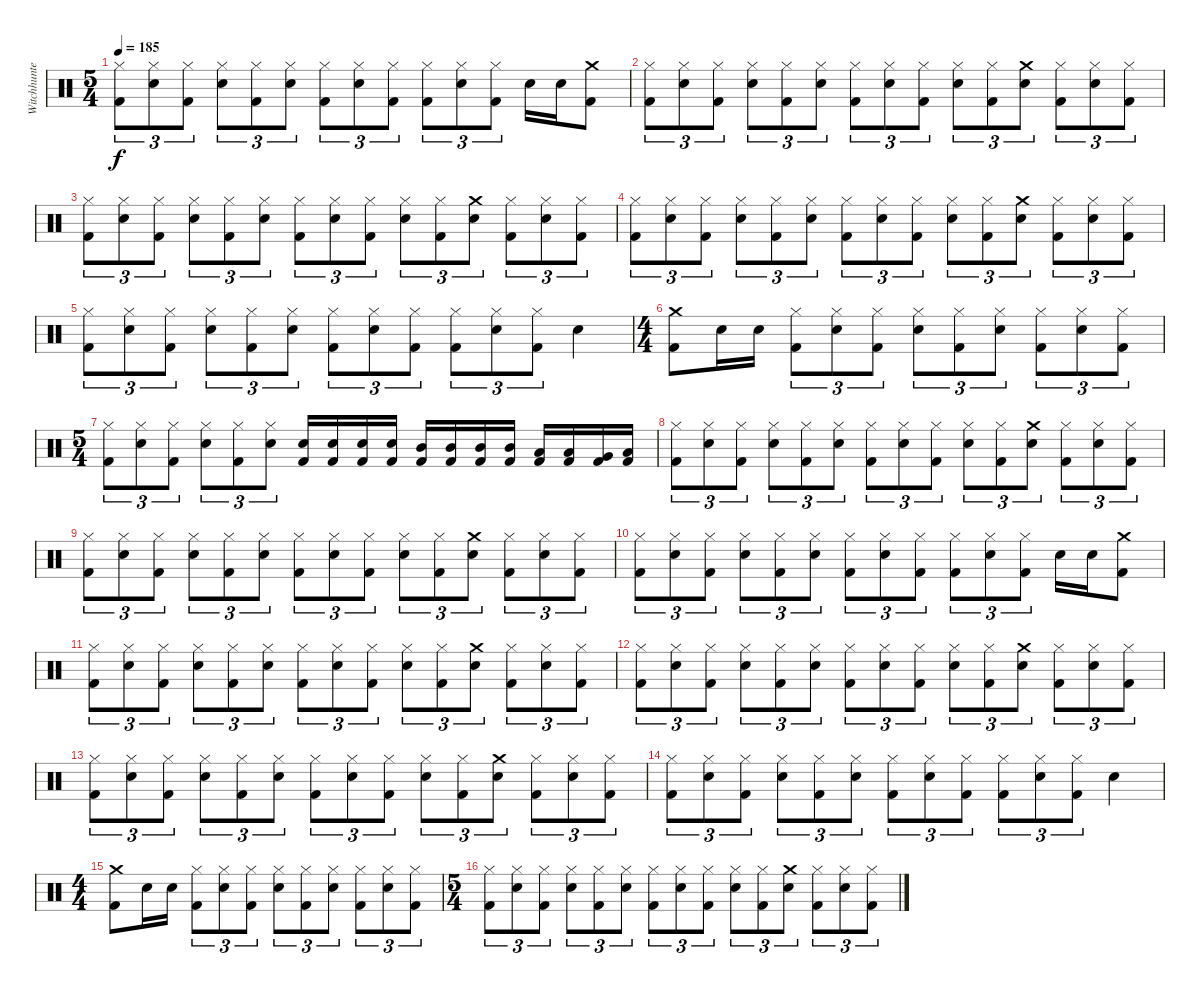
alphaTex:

\track ("Witchhunter" "Witchhunte") {instrument percussion}
\staff {score}
\articulation defaults
\ts (5 4)
\tempo 185
\clef neutral
\ks c
("Hi-Hat (closed)" "Kick (hit) 2").8{tu (3 2) dy f} ("Hi-Hat (closed)" "Snare (hit) 2").8{tu (3 2)} ("Hi-Hat (closed)" "Kick (hit) 2").8{tu (3 2)} ("Hi-Hat (closed)" "Snare (hit) 2").8{tu (3 2)} ("Hi-Hat (closed)" "Kick (hit) 2").8{tu (3 2)} ("Hi-Hat (closed)" "Snare (hit) 2").8{tu (3 2)} ("Hi-Hat (closed)" "Kick (hit) 2").8{tu (3 2)} ("Hi-Hat (closed)" "Snare (hit) 2").8{tu (3 2)} ("Hi-Hat (closed)" "Kick (hit) 2").8{tu (3 2)} ("Hi-Hat (closed)" "Kick (hit) 2").8{tu (3 2)} ("Hi-Hat (closed)" "Snare (hit) 2").8{tu (3 2)} ("Hi-Hat (closed)" "Kick (hit) 2").8{tu (3 2)} "Snare (hit) 2".16 "Snare (hit) 2".16 ("Crash medium (hit)" "Kick (hit) 2").8 |
("Hi-Hat (closed)" "Kick (hit) 2").8{tu (3 2)} ("Hi-Hat (closed)" "Snare (hit) 2").8{tu (3 2)} ("Hi-Hat (closed)" "Kick (hit) 2").8{tu (3 2)} ("Hi-Hat (closed)" "Snare (hit) 2").8{tu (3 2)} ("Hi-Hat (closed)" "Kick (hit) 2").8{tu (3 2)} ("Hi-Hat (closed)" "Snare (hit) 2").8{tu (3 2)} ("Hi-Hat (closed)" "Kick (hit) 2").8{tu (3 2)} ("Hi-Hat (closed)" "Snare (hit) 2").8{tu (3 2)} ("Hi-Hat (closed)" "Kick (hit) 2").8{tu (3 2)} ("Hi-Hat (closed)" "Snare (hit) 2").8{tu (3 2)} ("Hi-Hat (closed)" "Kick (hit) 2").8{tu (3 2)} ("Crash medium (hit)" "Snare (hit) 2").8{tu (3 2)} ("Hi-Hat (closed)" "Kick (hit) 2").8{tu (3 2)} ("Hi-Hat (closed)" "Snare (hit) 2").8{tu (3 2)} ("Hi-Hat (closed)" "Kick (hit) 2").8{tu (3 2)} |
("Hi-Hat (closed)" "Kick (hit) 2").8{tu (3 2)} ("Hi-Hat (closed)" "Snare (hit) 2").8{tu (3 2)} ("Hi-Hat (closed)" "Kick (hit) 2").8{tu (3 2)} ("Hi-Hat (closed)" "Snare (hit) 2").8{tu (3 2)} ("Hi-Hat (closed)" "Kick (hit) 2").8{tu (3 2)} ("Hi-Hat (closed)" "Snare (hit) 2").8{tu (3 2)} ("Hi-Hat (closed)" "Kick (hit) 2").8{tu (3 2)} ("Hi-Hat (closed)" "Snare (hit) 2").8{tu (3 2)} ("Hi-Hat (closed)" "Kick (hit) 2").8{tu (3 2)} ("Hi-Hat (closed)" "Snare (hit) 2").8{tu (3 2)} ("Hi-Hat (closed)" "Kick (hit) 2").8{tu (3 2)} ("Crash medium (hit)" "Snare (hit) 2").8{tu (3 2)} ("Hi-Hat (closed)" "Kick (hit) 2").8{tu (3 2)} ("Hi-Hat (closed)" "Snare (hit) 2").8{tu (3 2)} ("Hi-Hat (closed)" "Kick (hit) 2").8{tu (3 2)} |
("Hi-Hat (closed)" "Kick (hit) 2").8{tu (3 2)} ("Hi-Hat (closed)" "Snare (hit) 2").8{tu (3 2)} ("Hi-Hat (closed)" "Kick (hit) 2").8{tu (3 2)} ("Hi-Hat (closed)" "Snare (hit) 2").8{tu (3 2)} ("Hi-Hat (closed)" "Kick (hit) 2").8{tu (3 2)} ("Hi-Hat (closed)" "Snare (hit) 2").8{tu (3 2)} ("Hi-Hat (closed)" "Kick (hit) 2").8{tu (3 2)} ("Hi-Hat (closed)" "Snare (hit) 2").8{tu (3 2)} ("Hi-Hat (closed)" "Kick (hit) 2").8{tu (3 2)} ("Hi-Hat (closed)" "Snare (hit) 2").8{tu (3 2)} ("Hi-Hat (closed)" "Kick (hit) 2").8{tu (3 2)} ("Crash medium (hit)" "Snare (hit) 2").8{tu (3 2)} ("Hi-Hat (closed)" "Kick (hit) 2").8{tu (3 2)} ("Hi-Hat (closed)" "Snare (hit) 2").8{tu (3 2)} ("Hi-Hat (closed)" "Kick (hit) 2").8{tu (3 2)} |
("Hi-Hat (closed)" "Kick (hit) 2").8{tu (3 2)} ("Hi-Hat (closed)" "Snare (hit) 2").8{tu (3 2)} ("Hi-Hat (closed)" "Kick (hit) 2").8{tu (3 2)} ("Hi-Hat (closed)" "Snare (hit) 2").8{tu (3 2)} ("Hi-Hat (closed)" "Kick (hit) 2").8{tu (3 2)} ("Hi-Hat (closed)" "Snare (hit) 2").8{tu (3 2)} ("Hi-Hat (closed)" "Kick (hit) 2").8{tu (3 2)} ("Hi-Hat (closed)" "Snare (hit) 2").8{tu (3 2)} ("Hi-Hat (closed)" "Kick (hit) 2").8{tu (3 2)} ("Hi-Hat (closed)" "Kick (hit) 2").8{tu (3 2)} ("Hi-Hat (closed)" "Snare (hit) 2").8{tu (3 2)} ("Hi-Hat (closed)" "Kick (hit) 2").8{tu (3 2)} "Snare (hit) 2".4 |
\ts (4 4)
("Crash medium (hit)" "Kick (hit) 2").8 "Snare (hit) 2".16 "Snare (hit) 2".16 ("Hi-Hat (closed)" "Kick (hit) 2").8{tu (3 2)} ("Hi-Hat (closed)" "Snare (hit) 2").8{tu (3 2)} ("Hi-Hat (closed)" "Kick (hit) 2").8{tu (3 2)} ("Hi-Hat (closed)" "Snare (hit) 2").8{tu (3 2)} ("Hi-Hat (closed)" "Kick (hit) 2").8{tu (3 2)} ("Hi-Hat (closed)" "Snare (hit) 2").8{tu (3 2)} ("Hi-Hat (closed)" "Kick (hit) 2").8{tu (3 2)} ("Hi-Hat (closed)" "Snare (hit) 2").8{tu (3 2)} ("Hi-Hat (closed)" "Kick (hit) 2").8{tu (3 2)} |
\ts (5 4)
("Hi-Hat (closed)" "Kick (hit) 2").8{tu (3 2)} ("Hi-Hat (closed)" "Snare (hit) 2").8{tu (3 2)} ("Hi-Hat (closed)" "Kick (hit) 2").8{tu (3 2)} ("Hi-Hat (closed)" "Snare (hit) 2").8{tu (3 2)} ("Hi-Hat (closed)" "Kick (hit) 2").8{tu (3 2)} ("Hi-Hat (closed)" "Snare (hit) 2").8{tu (3 2)} ("Snare (hit) 2" "Kick (hit) 2").16 ("Snare (hit) 2" "Kick (hit) 2").16 ("Snare (hit) 2" "Kick (hit) 2").16 ("Snare (hit) 2" "Kick (hit) 2").16 ("Mid Tom (hit)" "Kick (hit) 2").16 ("Mid Tom (hit)" "Kick (hit) 2").16 ("Mid Tom (hit)" "Kick (hit) 2").16 ("Mid Tom (hit)" "Kick (hit) 2").16 ("Low Tom (hit)" "Kick (hit) 2").16 ("Low Tom (hit)" "Kick (hit) 2").16 ("Very Low Tom (hit)" "Kick (hit) 2").16 ("Low Floor Tom (hit)" "Kick (hit) 2").16 |
("Hi-Hat (closed)" "Kick (hit) 2").8{tu (3 2)} ("Hi-Hat (closed)" "Snare (hit) 2").8{tu (3 2)} ("Hi-Hat (closed)" "Kick (hit) 2").8{tu (3 2)} ("Hi-Hat (closed)" "Snare (hit) 2").8{tu (3 2)} ("Hi-Hat (closed)" "Kick (hit) 2").8{tu (3 2)} ("Hi-Hat (closed)" "Snare (hit) 2").8{tu (3 2)} ("Hi-Hat (closed)" "Kick (hit) 2").8{tu (3 2)} ("Hi-Hat (closed)" "Snare (hit) 2").8{tu (3 2)} ("Hi-Hat (closed)" "Kick (hit) 2").8{tu (3 2)} ("Hi-Hat (closed)" "Snare (hit) 2").8{tu (3 2)} ("Hi-Hat (closed)" "Kick (hit) 2").8{tu (3 2)} ("Crash medium (hit)" "Snare (hit) 2").8{tu (3 2)} ("Hi-Hat (closed)" "Kick (hit) 2").8{tu (3 2)} ("Hi-Hat (closed)" "Snare (hit) 2").8{tu (3 2)} ("Hi-Hat (closed)" "Kick (hit) 2").8{tu (3 2)} |
("Hi-Hat (closed)" "Kick (hit) 2").8{tu (3 2)} ("Hi-Hat (closed)" "Snare (hit) 2").8{tu (3 2)} ("Hi-Hat (closed)" "Kick (hit) 2").8{tu (3 2)} ("Hi-Hat (closed)" "Snare (hit) 2").8{tu (3 2)} ("Hi-Hat (closed)" "Kick (hit) 2").8{tu (3 2)} ("Hi-Hat (closed)" "Snare (hit) 2").8{tu (3 2)} ("Hi-Hat (closed)" "Kick (hit) 2").8{tu (3 2)} ("Hi-Hat (closed)" "Snare (hit) 2").8{tu (3 2)} ("Hi-Hat (closed)" "Kick (hit) 2").8{tu (3 2)} ("Hi-Hat (closed)" "Snare (hit) 2").8{tu (3 2)} ("Hi-Hat (closed)" "Kick (hit) 2").8{tu (3 2)} ("Crash medium (hit)" "Snare (hit) 2").8{tu (3 2)} ("Hi-Hat (closed)" "Kick (hit) 2").8{tu (3 2)} ("Hi-Hat (closed)" "Snare (hit) 2").8{tu (3 2)} ("Hi-Hat (closed)" "Kick (hit) 2").8{tu (3 2)} |
("Hi-Hat (closed)" "Kick (hit) 2").8{tu (3 2)} ("Hi-Hat (closed)" "Snare (hit) 2").8{tu (3 2)} ("Hi-Hat (closed)" "Kick (hit) 2").8{tu (3 2)} ("Hi-Hat (closed)" "Snare (hit) 2").8{tu (3 2)} ("Hi-Hat (closed)" "Kick (hit) 2").8{tu (3 2)} ("Hi-Hat (closed)" "Snare (hit) 2").8{tu (3 2)} ("Hi-Hat (closed)" "Kick (hit) 2").8{tu (3 2)} ("Hi-Hat (closed)" "Snare (hit) 2").8{tu (3 2)} ("Hi-Hat (closed)" "Kick (hit) 2").8{tu (3 2)} ("Hi-Hat (closed)" "Kick (hit) 2").8{tu (3 2)} ("Hi-Hat (closed)" "Snare (hit) 2").8{tu (3 2)} ("Hi-Hat (closed)" "Kick (hit) 2").8{tu (3 2)} "Snare (hit) 2".16 "Snare (hit) 2".16 ("Crash medium (hit)" "Kick (hit) 2").8 |
("Hi-Hat (closed)" "Kick (hit) 2").8{tu (3 2)} ("Hi-Hat (closed)" "Snare (hit) 2").8{tu (3 2)} ("Hi-Hat (closed)" "Kick (hit) 2").8{tu (3 2)} ("Hi-Hat (closed)" "Snare (hit) 2").8{tu (3 2)} ("Hi-Hat (closed)" "Kick (hit) 2").8{tu (3 2)} ("Hi-Hat (closed)" "Snare (hit) 2").8{tu (3 2)} ("Hi-Hat (closed)" "Kick (hit) 2").8{tu (3 2)} ("Hi-Hat (closed)" "Snare (hit) 2").8{tu (3 2)} ("Hi-Hat (closed)" "Kick (hit) 2").8{tu (3 2)} ("Hi-Hat (closed)" "Snare (hit) 2").8{tu (3 2)} ("Hi-Hat (closed)" "Kick (hit) 2").8{tu (3 2)} ("Crash medium (hit)" "Snare (hit) 2").8{tu (3 2)} ("Hi-Hat (closed)" "Kick (hit) 2").8{tu (3 2)} ("Hi-Hat (closed)" "Snare (hit) 2").8{tu (3 2)} ("Hi-Hat (closed)" "Kick (hit) 2").8{tu (3 2)} |
("Hi-Hat (closed)" "Kick (hit) 2").8{tu (3 2)} ("Hi-Hat (closed)" "Snare (hit) 2").8{tu (3 2)} ("Hi-Hat (closed)" "Kick (hit) 2").8{tu (3 2)} ("Hi-Hat (closed)" "Snare (hit) 2").8{tu (3 2)} ("Hi-Hat (closed)" "Kick (hit) 2").8{tu (3 2)} ("Hi-Hat (closed)" "Snare (hit) 2").8{tu (3 2)} ("Hi-Hat (closed)" "Kick (hit) 2").8{tu (3 2)} ("Hi-Hat (closed)" "Snare (hit) 2").8{tu (3 2)} ("Hi-Hat (closed)" "Kick (hit) 2").8{tu (3 2)} ("Hi-Hat (closed)" "Snare (hit) 2").8{tu (3 2)} ("Hi-Hat (closed)" "Kick (hit) 2").8{tu (3 2)} ("Crash medium (hit)" "Snare (hit) 2").8{tu (3 2)} ("Hi-Hat (closed)" "Kick (hit) 2").8{tu (3 2)} ("Hi-Hat (closed)" "Snare (hit) 2").8{tu (3 2)} ("Hi-Hat (closed)" "Kick (hit) 2").8{tu (3 2)} |
("Hi-Hat (closed)" "Kick (hit) 2").8{tu (3 2)} ("Hi-Hat (closed)" "Snare (hit) 2").8{tu (3 2)} ("Hi-Hat (closed)" "Kick (hit) 2").8{tu (3 2)} ("Hi-Hat (closed)" "Snare (hit) 2").8{tu (3 2)} ("Hi-Hat (closed)" "Kick (hit) 2").8{tu (3 2)} ("Hi-Hat (closed)" "Snare (hit) 2").8{tu (3 2)} ("Hi-Hat (closed)" "Kick (hit) 2").8{tu (3 2)} ("Hi-Hat (closed)" "Snare (hit) 2").8{tu (3 2)} ("Hi-Hat (closed)" "Kick (hit) 2").8{tu (3 2)} ("Hi-Hat (closed)" "Snare (hit) 2").8{tu (3 2)} ("Hi-Hat (closed)" "Kick (hit) 2").8{tu (3 2)} ("Crash medium (hit)" "Snare (hit) 2").8{tu (3 2)} ("Hi-Hat (closed)" "Kick (hit) 2").8{tu (3 2)} ("Hi-Hat (closed)" "Snare (hit) 2").8{tu (3 2)} ("Hi-Hat (closed)" "Kick (hit) 2").8{tu (3 2)} |
("Hi-Hat (closed)" "Kick (hit) 2").8{tu (3 2)} ("Hi-Hat (closed)" "Snare (hit) 2").8{tu (3 2)} ("Hi-Hat (closed)" "Kick (hit) 2").8{tu (3 2)} ("Hi-Hat (closed)" "Snare (hit) 2").8{tu (3 2)} ("Hi-Hat (closed)" "Kick (hit) 2").8{tu (3 2)} ("Hi-Hat (closed)" "Snare (hit) 2").8{tu (3 2)} ("Hi-Hat (closed)" "Kick (hit) 2").8{tu (3 2)} ("Hi-Hat (closed)" "Snare (hit) 2").8{tu (3 2)} ("Hi-Hat (closed)" "Kick (hit) 2").8{tu (3 2)} ("Hi-Hat (closed)" "Kick (hit) 2").8{tu (3 2)} ("Hi-Hat (closed)" "Snare (hit) 2").8{tu (3 2)} ("Hi-Hat (closed)" "Kick (hit) 2").8{tu (3 2)} "Snare (hit) 2".4 |
\ts (4 4)
("Crash medium (hit)" "Kick (hit) 2").8 "Snare (hit) 2".16 "Snare (hit) 2".16 ("Hi-Hat (closed)" "Kick (hit) 2").8{tu (3 2)} ("Hi-Hat (closed)" "Snare (hit) 2").8{tu (3 2)} ("Hi-Hat (closed)" "Kick (hit) 2").8{tu (3 2)} ("Hi-Hat (closed)" "Snare (hit) 2").8{tu (3 2)} ("Hi-Hat (closed)" "Kick (hit) 2").8{tu (3 2)} ("Hi-Hat (closed)" "Snare (hit) 2").8{tu (3 2)} ("Hi-Hat (closed)" "Kick (hit) 2").8{tu (3 2)} ("Hi-Hat (closed)" "Snare (hit) 2").8{tu (3 2)} ("Hi-Hat (closed)" "Kick (hit) 2").8{tu (3 2)} |
\ts (5 4)
("Hi-Hat (closed)" "Kick (hit) 2").8{tu (3 2)} ("Hi-Hat (closed)" "Snare (hit) 2").8{tu (3 2)} ("Hi-Hat (closed)" "Kick (hit) 2").8{tu (3 2)} ("Hi-Hat (closed)" "Snare (hit) 2").8{tu (3 2)} ("Hi-Hat (closed)" "Kick (hit) 2").8{tu (3 2)} ("Hi-Hat (closed)" "Snare (hit) 2").8{tu (3 2)} ("Hi-Hat (closed)" "Kick (hit) 2").8{tu (3 2)} ("Hi-Hat (closed)" "Snare (hit) 2").8{tu (3 2)} ("Hi-Hat (closed)" "Kick (hit) 2").8{tu (3 2)} ("Hi-Hat (closed)" "Snare (hit) 2").8{tu (3 2)} ("Hi-Hat (closed)" "Kick (hit) 2").8{tu (3 2)} ("Crash medium (hit)" "Snare (hit) 2").8{tu (3 2)} ("Hi-Hat (closed)" "Kick (hit) 2").8{tu (3 2)} ("Hi-Hat (closed)" "Snare (hit) 2").8{tu (3 2)} ("Hi-Hat (closed)" "Kick (hit) 2").8{tu (3 2)}
